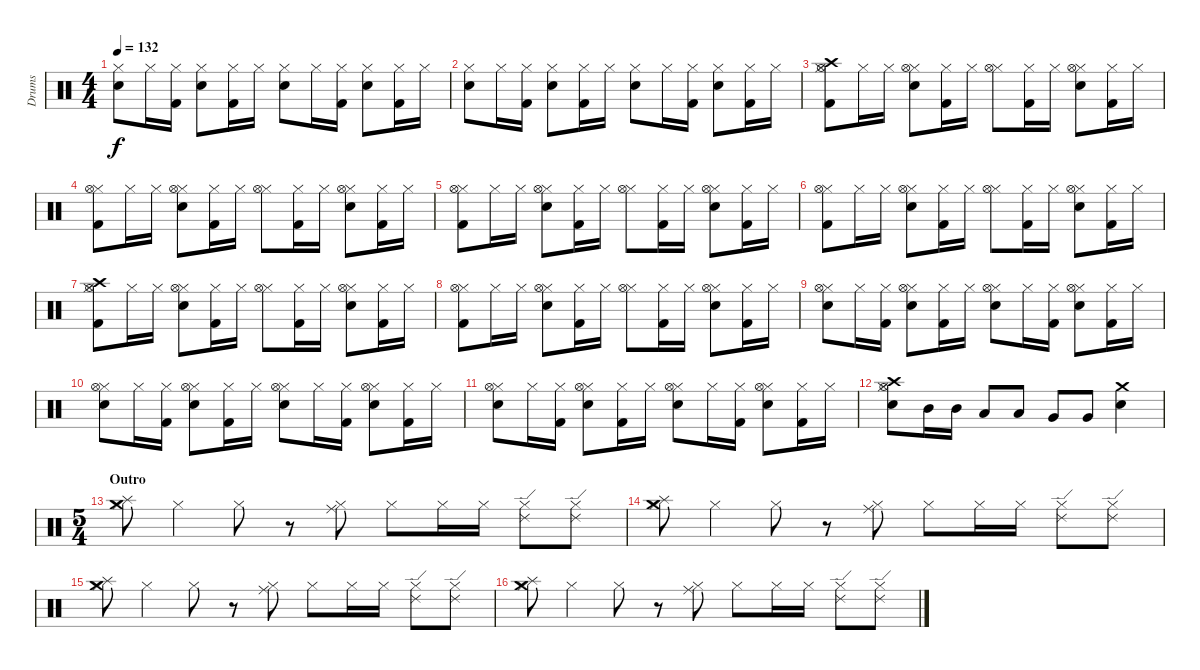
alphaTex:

\track ("Drums" "Drums") {instrument percussion}
\staff {score}
\articulation defaults
\ts (4 4)
\tempo 132
\clef neutral
\ks c
("Snare (hit) 2" "Hi-Hat (closed)").8{dy f} "Hi-Hat (closed)".16 ("Kick (hit) 2" "Hi-Hat (closed)").16 ("Snare (hit) 2" "Hi-Hat (closed)").8 ("Kick (hit) 2" "Hi-Hat (closed)").16 "Hi-Hat (closed)".16 ("Snare (hit) 2" "Hi-Hat (closed)").8 "Hi-Hat (closed)".16 ("Kick (hit) 2" "Hi-Hat (closed)").16 ("Snare (hit) 2" "Hi-Hat (closed)").8 ("Kick (hit) 2" "Hi-Hat (closed)").16 "Hi-Hat (closed)".16 |
("Snare (hit) 2" "Hi-Hat (closed)").8 "Hi-Hat (closed)".16 ("Kick (hit) 2" "Hi-Hat (closed)").16 ("Snare (hit) 2" "Hi-Hat (closed)").8 ("Kick (hit) 2" "Hi-Hat (closed)").16 "Hi-Hat (closed)".16 ("Snare (hit) 2" "Hi-Hat (closed)").8 "Hi-Hat (closed)".16 ("Kick (hit) 2" "Hi-Hat (closed)").16 ("Snare (hit) 2" "Hi-Hat (closed)").8 ("Kick (hit) 2" "Hi-Hat (closed)").16 "Hi-Hat (closed)".16 |
("Kick (hit) 2" "Hi-Hat (closed)" "Hi-Hat (open)" "Crash high (hit)").8 "Hi-Hat (closed)".16 "Hi-Hat (closed)".16 ("Snare (hit) 2" "Hi-Hat (closed)" "Hi-Hat (open)").8 ("Kick (hit) 2" "Hi-Hat (closed)").16 "Hi-Hat (closed)".16 ("Hi-Hat (closed)" "Hi-Hat (open)").8 ("Kick (hit) 2" "Hi-Hat (closed)").16 "Hi-Hat (closed)".16 ("Snare (hit) 2" "Hi-Hat (closed)" "Hi-Hat (open)").8 ("Kick (hit) 2" "Hi-Hat (closed)").16 "Hi-Hat (closed)".16 |
("Kick (hit) 2" "Hi-Hat (closed)" "Hi-Hat (open)").8 "Hi-Hat (closed)".16 "Hi-Hat (closed)".16 ("Snare (hit) 2" "Hi-Hat (closed)" "Hi-Hat (open)").8 ("Kick (hit) 2" "Hi-Hat (closed)").16 "Hi-Hat (closed)".16 ("Hi-Hat (closed)" "Hi-Hat (open)").8 ("Kick (hit) 2" "Hi-Hat (closed)").16 "Hi-Hat (closed)".16 ("Snare (hit) 2" "Hi-Hat (closed)" "Hi-Hat (open)").8 ("Kick (hit) 2" "Hi-Hat (closed)").16 "Hi-Hat (closed)".16 |
("Kick (hit) 2" "Hi-Hat (closed)" "Hi-Hat (open)").8 "Hi-Hat (closed)".16 "Hi-Hat (closed)".16 ("Snare (hit) 2" "Hi-Hat (closed)" "Hi-Hat (open)").8 ("Kick (hit) 2" "Hi-Hat (closed)").16 "Hi-Hat (closed)".16 ("Hi-Hat (closed)" "Hi-Hat (open)").8 ("Kick (hit) 2" "Hi-Hat (closed)").16 "Hi-Hat (closed)".16 ("Snare (hit) 2" "Hi-Hat (closed)" "Hi-Hat (open)").8 ("Kick (hit) 2" "Hi-Hat (closed)").16 "Hi-Hat (closed)".16 |
("Kick (hit) 2" "Hi-Hat (closed)" "Hi-Hat (open)").8 "Hi-Hat (closed)".16 "Hi-Hat (closed)".16 ("Snare (hit) 2" "Hi-Hat (closed)" "Hi-Hat (open)").8 ("Kick (hit) 2" "Hi-Hat (closed)").16 "Hi-Hat (closed)".16 ("Hi-Hat (closed)" "Hi-Hat (open)").8 ("Kick (hit) 2" "Hi-Hat (closed)").16 "Hi-Hat (closed)".16 ("Snare (hit) 2" "Hi-Hat (closed)" "Hi-Hat (open)").8 ("Kick (hit) 2" "Hi-Hat (closed)").16 "Hi-Hat (closed)".16 |
("Kick (hit) 2" "Hi-Hat (closed)" "Hi-Hat (open)" "Crash high (hit)").8 "Hi-Hat (closed)".16 "Hi-Hat (closed)".16 ("Snare (hit) 2" "Hi-Hat (closed)" "Hi-Hat (open)").8 ("Kick (hit) 2" "Hi-Hat (closed)").16 "Hi-Hat (closed)".16 ("Hi-Hat (closed)" "Hi-Hat (open)").8 ("Kick (hit) 2" "Hi-Hat (closed)").16 "Hi-Hat (closed)".16 ("Snare (hit) 2" "Hi-Hat (closed)" "Hi-Hat (open)").8 ("Kick (hit) 2" "Hi-Hat (closed)").16 "Hi-Hat (closed)".16 |
("Kick (hit) 2" "Hi-Hat (closed)" "Hi-Hat (open)").8 "Hi-Hat (closed)".16 "Hi-Hat (closed)".16 ("Snare (hit) 2" "Hi-Hat (closed)" "Hi-Hat (open)").8 ("Kick (hit) 2" "Hi-Hat (closed)").16 "Hi-Hat (closed)".16 ("Hi-Hat (closed)" "Hi-Hat (open)").8 ("Kick (hit) 2" "Hi-Hat (closed)").16 "Hi-Hat (closed)".16 ("Snare (hit) 2" "Hi-Hat (closed)" "Hi-Hat (open)").8 ("Kick (hit) 2" "Hi-Hat (closed)").16 "Hi-Hat (closed)".16 |
("Snare (hit) 2" "Hi-Hat (closed)" "Hi-Hat (open)").8 "Hi-Hat (closed)".16 ("Kick (hit) 2" "Hi-Hat (closed)").16 ("Snare (hit) 2" "Hi-Hat (closed)" "Hi-Hat (open)").8 ("Kick (hit) 2" "Hi-Hat (closed)").16 "Hi-Hat (closed)".16 ("Snare (hit) 2" "Hi-Hat (closed)" "Hi-Hat (open)").8 "Hi-Hat (closed)".16 ("Kick (hit) 2" "Hi-Hat (closed)").16 ("Snare (hit) 2" "Hi-Hat (closed)" "Hi-Hat (open)").8 ("Kick (hit) 2" "Hi-Hat (closed)").16 "Hi-Hat (closed)".16 |
("Snare (hit) 2" "Hi-Hat (closed)" "Hi-Hat (open)").8 "Hi-Hat (closed)".16 ("Kick (hit) 2" "Hi-Hat (closed)").16 ("Snare (hit) 2" "Hi-Hat (closed)" "Hi-Hat (open)").8 ("Kick (hit) 2" "Hi-Hat (closed)").16 "Hi-Hat (closed)".16 ("Snare (hit) 2" "Hi-Hat (closed)" "Hi-Hat (open)").8 "Hi-Hat (closed)".16 ("Kick (hit) 2" "Hi-Hat (closed)").16 ("Snare (hit) 2" "Hi-Hat (closed)" "Hi-Hat (open)").8 ("Kick (hit) 2" "Hi-Hat (closed)").16 "Hi-Hat (closed)".16 |
("Snare (hit) 2" "Hi-Hat (closed)" "Hi-Hat (open)").8 "Hi-Hat (closed)".16 ("Kick (hit) 2" "Hi-Hat (closed)").16 ("Snare (hit) 2" "Hi-Hat (closed)" "Hi-Hat (open)").8 ("Kick (hit) 2" "Hi-Hat (closed)").16 "Hi-Hat (closed)".16 ("Snare (hit) 2" "Hi-Hat (closed)" "Hi-Hat (open)").8 "Hi-Hat (closed)".16 ("Kick (hit) 2" "Hi-Hat (closed)").16 ("Snare (hit) 2" "Hi-Hat (closed)" "Hi-Hat (open)").8 ("Kick (hit) 2" "Hi-Hat (closed)").16 "Hi-Hat (closed)".16 |
("Snare (hit) 2" "Hi-Hat (closed)" "Hi-Hat (open)" "Crash high (hit)").8 "Mid Tom (hit)".16 "Mid Tom (hit)".16 "Low Tom (hit)".8 "Low Tom (hit)".8 "Very Low Tom (hit)".8 "Very Low Tom (hit)".8 ("Snare (hit) 2" "Crash medium (hit)").4 |
\ts (5 4)
\section ("" "Outro")
("Hi-Hat (closed)" "Splash (hit)" "Crash medium (hit)").8 "Hi-Hat (closed)".4 "Hi-Hat (closed)".8 r.8 ("Hi-Hat (closed)" "Ride (middle)").8 "Hi-Hat (closed)".8 "Hi-Hat (closed)".16 "Hi-Hat (closed)".16 ("Ride (edge) 2" "Hi-Hat (closed)").8 ("Ride (edge) 2" "Hi-Hat (closed)").8 |
("Hi-Hat (closed)" "Splash (hit)" "Crash medium (hit)").8 "Hi-Hat (closed)".4 "Hi-Hat (closed)".8 r.8 ("Hi-Hat (closed)" "Ride (middle)").8 "Hi-Hat (closed)".8 "Hi-Hat (closed)".16 "Hi-Hat (closed)".16 ("Ride (edge) 2" "Hi-Hat (closed)").8 ("Ride (edge) 2" "Hi-Hat (closed)").8 |
("Hi-Hat (closed)" "Splash (hit)" "Crash medium (hit)").8 "Hi-Hat (closed)".4 "Hi-Hat (closed)".8 r.8 ("Hi-Hat (closed)" "Ride (middle)").8 "Hi-Hat (closed)".8 "Hi-Hat (closed)".16 "Hi-Hat (closed)".16 ("Ride (edge) 2" "Hi-Hat (closed)").8 ("Ride (edge) 2" "Hi-Hat (closed)").8 |
("Hi-Hat (closed)" "Splash (hit)" "Crash medium (hit)").8 "Hi-Hat (closed)".4 "Hi-Hat (closed)".8 r.8 ("Hi-Hat (closed)" "Ride (middle)").8 "Hi-Hat (closed)".8 "Hi-Hat (closed)".16 "Hi-Hat (closed)".16 ("Ride (edge) 2" "Hi-Hat (closed)").8 ("Ride (edge) 2" "Hi-Hat (closed)").8
